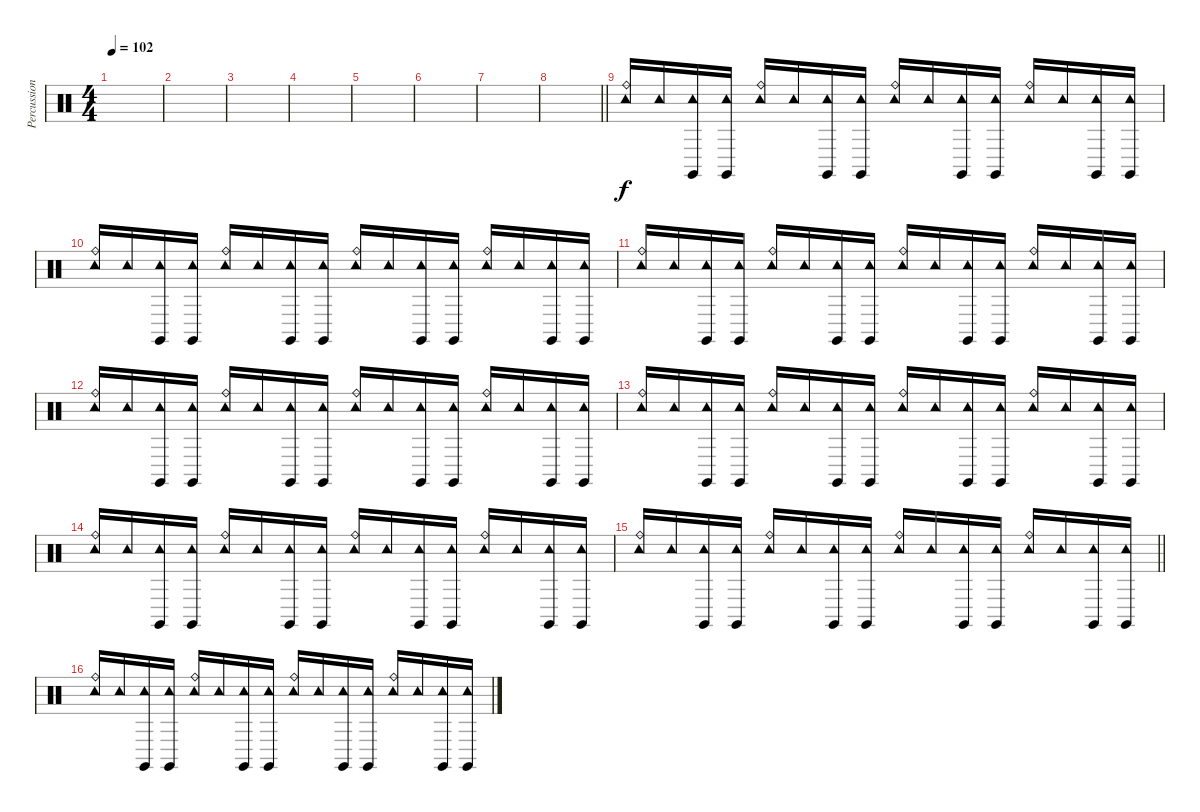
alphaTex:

\track ("Percussions" "Percussion") {instrument percussion}
\staff {score}
\articulation defaults
\ts (4 4)
\tempo 102
\clef neutral
\ks c
|
|
|
|
|
|
|
\barLineRight lightlight
|
("Tambourine (hit)" "Ride (bell)").16 "Tambourine (hit)".16 ("Tambourine (hit)" "Claves (hit)").16 ("Tambourine (hit)" "Claves (hit)").16 ("Tambourine (hit)" "Ride (bell)").16 "Tambourine (hit)".16 ("Tambourine (hit)" "Claves (hit)").16 ("Tambourine (hit)" "Claves (hit)").16 ("Tambourine (hit)" "Ride (bell)").16 "Tambourine (hit)".16 ("Tambourine (hit)" "Claves (hit)").16 ("Tambourine (hit)" "Claves (hit)").16 ("Tambourine (hit)" "Ride (bell)").16 "Tambourine (hit)".16 ("Tambourine (hit)" "Claves (hit)").16 ("Tambourine (hit)" "Claves (hit)").16 |
("Tambourine (hit)" "Ride (bell)").16 "Tambourine (hit)".16 ("Tambourine (hit)" "Claves (hit)").16 ("Tambourine (hit)" "Claves (hit)").16 ("Tambourine (hit)" "Ride (bell)").16 "Tambourine (hit)".16 ("Tambourine (hit)" "Claves (hit)").16 ("Tambourine (hit)" "Claves (hit)").16 ("Tambourine (hit)" "Ride (bell)").16 "Tambourine (hit)".16 ("Tambourine (hit)" "Claves (hit)").16 ("Tambourine (hit)" "Claves (hit)").16 ("Tambourine (hit)" "Ride (bell)").16 "Tambourine (hit)".16 ("Tambourine (hit)" "Claves (hit)").16 ("Tambourine (hit)" "Claves (hit)").16 |
("Tambourine (hit)" "Ride (bell)").16 "Tambourine (hit)".16 ("Tambourine (hit)" "Claves (hit)").16 ("Tambourine (hit)" "Claves (hit)").16 ("Tambourine (hit)" "Ride (bell)").16 "Tambourine (hit)".16 ("Tambourine (hit)" "Claves (hit)").16 ("Tambourine (hit)" "Claves (hit)").16 ("Tambourine (hit)" "Ride (bell)").16 "Tambourine (hit)".16 ("Tambourine (hit)" "Claves (hit)").16 ("Tambourine (hit)" "Claves (hit)").16 ("Tambourine (hit)" "Ride (bell)").16 "Tambourine (hit)".16 ("Tambourine (hit)" "Claves (hit)").16 ("Tambourine (hit)" "Claves (hit)").16 |
("Tambourine (hit)" "Ride (bell)").16 "Tambourine (hit)".16 ("Tambourine (hit)" "Claves (hit)").16 ("Tambourine (hit)" "Claves (hit)").16 ("Tambourine (hit)" "Ride (bell)").16 "Tambourine (hit)".16 ("Tambourine (hit)" "Claves (hit)").16 ("Tambourine (hit)" "Claves (hit)").16 ("Tambourine (hit)" "Ride (bell)").16 "Tambourine (hit)".16 ("Tambourine (hit)" "Claves (hit)").16 ("Tambourine (hit)" "Claves (hit)").16 ("Tambourine (hit)" "Ride (bell)").16 "Tambourine (hit)".16 ("Tambourine (hit)" "Claves (hit)").16 ("Tambourine (hit)" "Claves (hit)").16 |
("Tambourine (hit)" "Ride (bell)").16 "Tambourine (hit)".16 ("Tambourine (hit)" "Claves (hit)").16 ("Tambourine (hit)" "Claves (hit)").16 ("Tambourine (hit)" "Ride (bell)").16 "Tambourine (hit)".16 ("Tambourine (hit)" "Claves (hit)").16 ("Tambourine (hit)" "Claves (hit)").16 ("Tambourine (hit)" "Ride (bell)").16 "Tambourine (hit)".16 ("Tambourine (hit)" "Claves (hit)").16 ("Tambourine (hit)" "Claves (hit)").16 ("Tambourine (hit)" "Ride (bell)").16 "Tambourine (hit)".16 ("Tambourine (hit)" "Claves (hit)").16 ("Tambourine (hit)" "Claves (hit)").16 |
("Tambourine (hit)" "Ride (bell)").16 "Tambourine (hit)".16 ("Tambourine (hit)" "Claves (hit)").16 ("Tambourine (hit)" "Claves (hit)").16 ("Tambourine (hit)" "Ride (bell)").16 "Tambourine (hit)".16 ("Tambourine (hit)" "Claves (hit)").16 ("Tambourine (hit)" "Claves (hit)").16 ("Tambourine (hit)" "Ride (bell)").16 "Tambourine (hit)".16 ("Tambourine (hit)" "Claves (hit)").16 ("Tambourine (hit)" "Claves (hit)").16 ("Tambourine (hit)" "Ride (bell)").16 "Tambourine (hit)".16 ("Tambourine (hit)" "Claves (hit)").16 ("Tambourine (hit)" "Claves (hit)").16 |
\barLineRight lightlight
("Tambourine (hit)" "Ride (bell)").16 "Tambourine (hit)".16 ("Tambourine (hit)" "Claves (hit)").16 ("Tambourine (hit)" "Claves (hit)").16 ("Tambourine (hit)" "Ride (bell)").16 "Tambourine (hit)".16 ("Tambourine (hit)" "Claves (hit)").16 ("Tambourine (hit)" "Claves (hit)").16 ("Tambourine (hit)" "Ride (bell)").16 "Tambourine (hit)".16 ("Tambourine (hit)" "Claves (hit)").16 ("Tambourine (hit)" "Claves (hit)").16 ("Tambourine (hit)" "Ride (bell)").16 "Tambourine (hit)".16 ("Tambourine (hit)" "Claves (hit)").16 ("Tambourine (hit)" "Claves (hit)").16 |
("Tambourine (hit)" "Ride (bell)").16 "Tambourine (hit)".16 ("Tambourine (hit)" "Claves (hit)").16 ("Tambourine (hit)" "Claves (hit)").16 ("Tambourine (hit)" "Ride (bell)").16 "Tambourine (hit)".16 ("Tambourine (hit)" "Claves (hit)").16 ("Tambourine (hit)" "Claves (hit)").16 ("Tambourine (hit)" "Ride (bell)").16 "Tambourine (hit)".16 ("Tambourine (hit)" "Claves (hit)").16 ("Tambourine (hit)" "Claves (hit)").16 ("Tambourine (hit)" "Ride (bell)").16 "Tambourine (hit)".16 ("Tambourine (hit)" "Claves (hit)").16 ("Tambourine (hit)" "Claves (hit)").16
